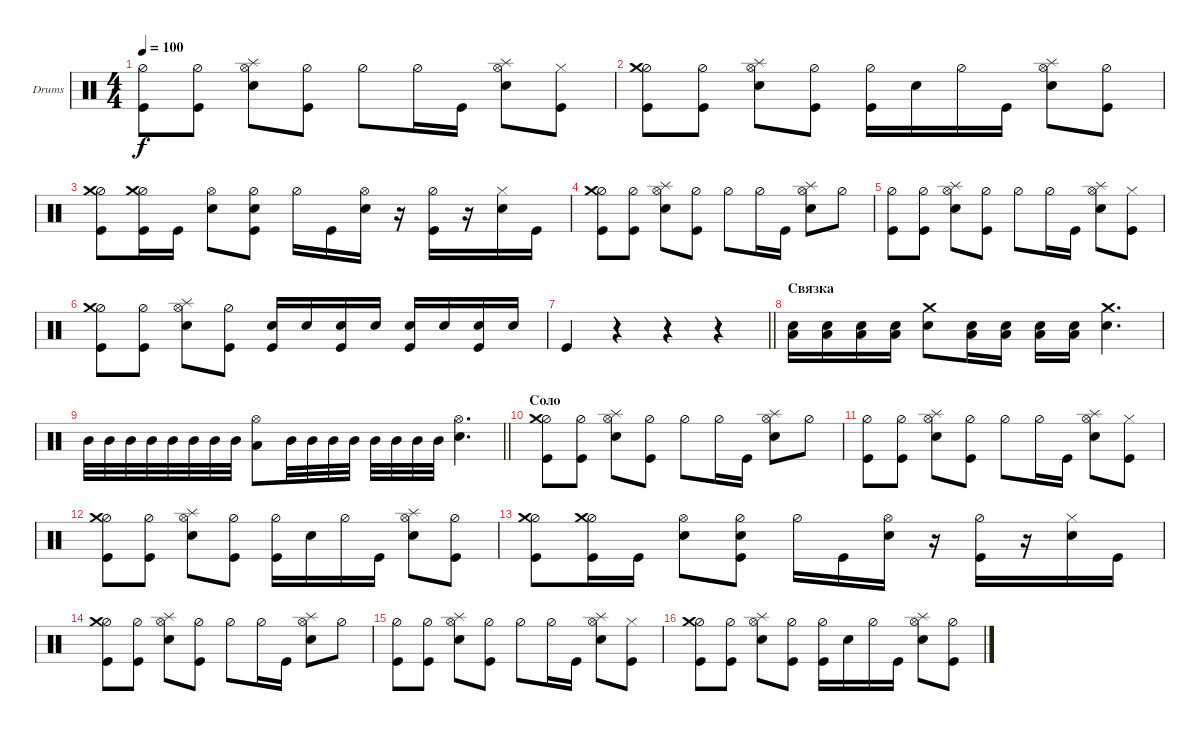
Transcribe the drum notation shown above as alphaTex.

\bracketExtendMode groupsimilarinstruments
\firstSystemTrackNameOrientation horizontal
\otherSystemsTrackNameOrientation horizontal
\track ("Drumkit" "Drums") {instrument percussion}
\staff {score}
\articulation defaults
\ts (4 4)
\tempo 100
\clef neutral
\ks c
("Hi-Hat (half)" "Kick (hit)").8{dy f} ("Kick (hit)" "Hi-Hat (half)").8 ("Hi-Hat (open)" "Snare (hit) 2" "Splash (hit)").8 ("Kick (hit)" "Hi-Hat (half)").8 "Hi-Hat (half)".8 "Hi-Hat (half)".16 "Kick (hit)".16 ("Hi-Hat (open)" "Snare (hit) 2" "Splash (hit)").8 ("Kick (hit)" "Hi-Hat (closed)").8 |
("Hi-Hat (half)" "Kick (hit)" "Crash medium (hit)").8 ("Kick (hit)" "Hi-Hat (half)").8 ("Hi-Hat (open)" "Snare (hit) 2" "Splash (hit)").8 ("Kick (hit)" "Hi-Hat (half)").8 ("Hi-Hat (half)" "Kick (hit)").16 "Snare (hit) 2".16 "Hi-Hat (half)".16 "Kick (hit)".16 ("Hi-Hat (open)" "Snare (hit) 2" "Splash (hit)").8 ("Kick (hit)" "Hi-Hat (half)").8 |
("Hi-Hat (half)" "Kick (hit)" "Crash medium (hit)").8 ("Kick (hit)" "Hi-Hat (half)" "Crash medium (hit)").16 "Kick (hit)".16 ("Hi-Hat (open)" "Snare (hit) 2").8 ("Kick (hit)" "Hi-Hat (half)" "Snare (hit) 2").8 "Hi-Hat (half)".16 "Kick (hit)".16 ("Snare (hit) 2" "Hi-Hat (open)").16 r.16 ("Kick (hit)" "Hi-Hat (half)").16 r.16 ("Snare (hit) 2" "Hi-Hat (closed)").16 "Kick (hit)".16 |
("Hi-Hat (half)" "Kick (hit)" "Crash medium (hit)").8 ("Kick (hit)" "Hi-Hat (half)").8 ("Hi-Hat (open)" "Snare (hit) 2" "Splash (hit)").8 ("Kick (hit)" "Hi-Hat (half)").8 "Hi-Hat (half)".8 "Hi-Hat (half)".16 "Kick (hit)".16 ("Hi-Hat (open)" "Snare (hit) 2" "Splash (hit)").8 "Hi-Hat (half)".8 |
("Hi-Hat (half)" "Kick (hit)").8 ("Kick (hit)" "Hi-Hat (half)").8 ("Hi-Hat (open)" "Snare (hit) 2" "Splash (hit)").8 ("Kick (hit)" "Hi-Hat (half)").8 "Hi-Hat (half)".8 "Hi-Hat (half)".16 "Kick (hit)".16 ("Hi-Hat (open)" "Snare (hit) 2" "Splash (hit)").8 ("Kick (hit)" "Hi-Hat (closed)").8 |
("Hi-Hat (half)" "Kick (hit)" "Crash medium (hit)").8 ("Kick (hit)" "Hi-Hat (half)").8 ("Hi-Hat (open)" "Snare (hit) 2" "Splash (hit)").8 ("Kick (hit)" "Hi-Hat (half)").8 ("Snare (hit) 2" "Kick (hit)").16 "Snare (hit) 2".16 ("Snare (hit) 2" "Kick (hit)").16 "Snare (hit) 2".16 ("Snare (hit) 2" "Kick (hit)").16 "Snare (hit) 2".16 ("Snare (hit) 2" "Kick (hit)").16 "Snare (hit) 2".16 |
\barLineRight lightlight "Kick (hit)".4
r.4 r.4 r.4 |
\section ("" "Связка")
("Low Tom (hit)" "Snare (hit) 2").16 ("Low Tom (hit)" "Snare (hit) 2").16 ("Low Tom (hit)" "Snare (hit) 2").16 ("Low Tom (hit)" "Snare (hit) 2").16 ("Crash medium (hit)" "Snare (hit) 2").8 ("Low Tom (hit)" "Snare (hit) 2").16 ("Low Tom (hit)" "Snare (hit) 2").16 ("Low Tom (hit)" "Snare (hit) 2").16 ("Low Tom (hit)" "Snare (hit) 2").16 ("Crash medium (hit)" "Snare (hit) 2").4{d} |
\barLineRight lightlight "Mid Tom (hit)".32 "Mid Tom (hit)".32 "Mid Tom (hit)".32 "Mid Tom (hit)".32 "Mid Tom (hit)".32 "Mid Tom (hit)".32 "Mid Tom (hit)".32 "Mid Tom (hit)".32
("Hi-Hat (open)" "Low Tom (hit)").8 "Mid Tom (hit)".32 "Mid Tom (hit)".32 "Mid Tom (hit)".32 "Mid Tom (hit)".32 "Mid Tom (hit)".32 "Mid Tom (hit)".32 "Mid Tom (hit)".32 "Mid Tom (hit)".32 ("Hi-Hat (open)" "Snare (hit) 2").4{d} |
\section ("" "Соло")
("Hi-Hat (half)" "Kick (hit)" "Crash medium (hit)").8 ("Kick (hit)" "Hi-Hat (half)").8 ("Hi-Hat (open)" "Snare (hit) 2" "Splash (hit)").8 ("Kick (hit)" "Hi-Hat (half)").8 "Hi-Hat (half)".8 "Hi-Hat (half)".16 "Kick (hit)".16 ("Hi-Hat (open)" "Snare (hit) 2" "Splash (hit)").8 "Hi-Hat (half)".8 |
("Hi-Hat (half)" "Kick (hit)").8 ("Kick (hit)" "Hi-Hat (half)").8 ("Hi-Hat (open)" "Snare (hit) 2" "Splash (hit)").8 ("Kick (hit)" "Hi-Hat (half)").8 "Hi-Hat (half)".8 "Hi-Hat (half)".16 "Kick (hit)".16 ("Hi-Hat (open)" "Snare (hit) 2" "Splash (hit)").8 ("Kick (hit)" "Hi-Hat (closed)").8 |
("Hi-Hat (half)" "Kick (hit)" "Crash medium (hit)").8 ("Kick (hit)" "Hi-Hat (half)").8 ("Hi-Hat (open)" "Snare (hit) 2" "Splash (hit)").8 ("Kick (hit)" "Hi-Hat (half)").8 ("Hi-Hat (half)" "Kick (hit)").16 "Snare (hit) 2".16 "Hi-Hat (half)".16 "Kick (hit)".16 ("Hi-Hat (open)" "Snare (hit) 2" "Splash (hit)").8 ("Kick (hit)" "Hi-Hat (half)").8 |
("Hi-Hat (half)" "Kick (hit)" "Crash medium (hit)").8 ("Kick (hit)" "Hi-Hat (half)" "Crash medium (hit)").16 "Kick (hit)".16 ("Hi-Hat (open)" "Snare (hit) 2").8 ("Kick (hit)" "Hi-Hat (half)" "Snare (hit) 2").8 "Hi-Hat (half)".16 "Kick (hit)".16 ("Snare (hit) 2" "Hi-Hat (open)").16 r.16 ("Kick (hit)" "Hi-Hat (half)").16 r.16 ("Snare (hit) 2" "Hi-Hat (closed)").16 "Kick (hit)".16 |
("Hi-Hat (half)" "Kick (hit)" "Crash medium (hit)").8 ("Kick (hit)" "Hi-Hat (half)").8 ("Hi-Hat (open)" "Snare (hit) 2" "Splash (hit)").8 ("Kick (hit)" "Hi-Hat (half)").8 "Hi-Hat (half)".8 "Hi-Hat (half)".16 "Kick (hit)".16 ("Hi-Hat (open)" "Snare (hit) 2" "Splash (hit)").8 "Hi-Hat (half)".8 |
("Hi-Hat (half)" "Kick (hit)").8 ("Kick (hit)" "Hi-Hat (half)").8 ("Hi-Hat (open)" "Snare (hit) 2" "Splash (hit)").8 ("Kick (hit)" "Hi-Hat (half)").8 "Hi-Hat (half)".8 "Hi-Hat (half)".16 "Kick (hit)".16 ("Hi-Hat (open)" "Snare (hit) 2" "Splash (hit)").8 ("Kick (hit)" "Hi-Hat (closed)").8 |
("Hi-Hat (half)" "Kick (hit)" "Crash medium (hit)").8 ("Kick (hit)" "Hi-Hat (half)").8 ("Hi-Hat (open)" "Snare (hit) 2" "Splash (hit)").8 ("Kick (hit)" "Hi-Hat (half)").8 ("Hi-Hat (half)" "Kick (hit)").16 "Snare (hit) 2".16 "Hi-Hat (half)".16 "Kick (hit)".16 ("Hi-Hat (open)" "Snare (hit) 2" "Splash (hit)").8 ("Kick (hit)" "Hi-Hat (half)").8
